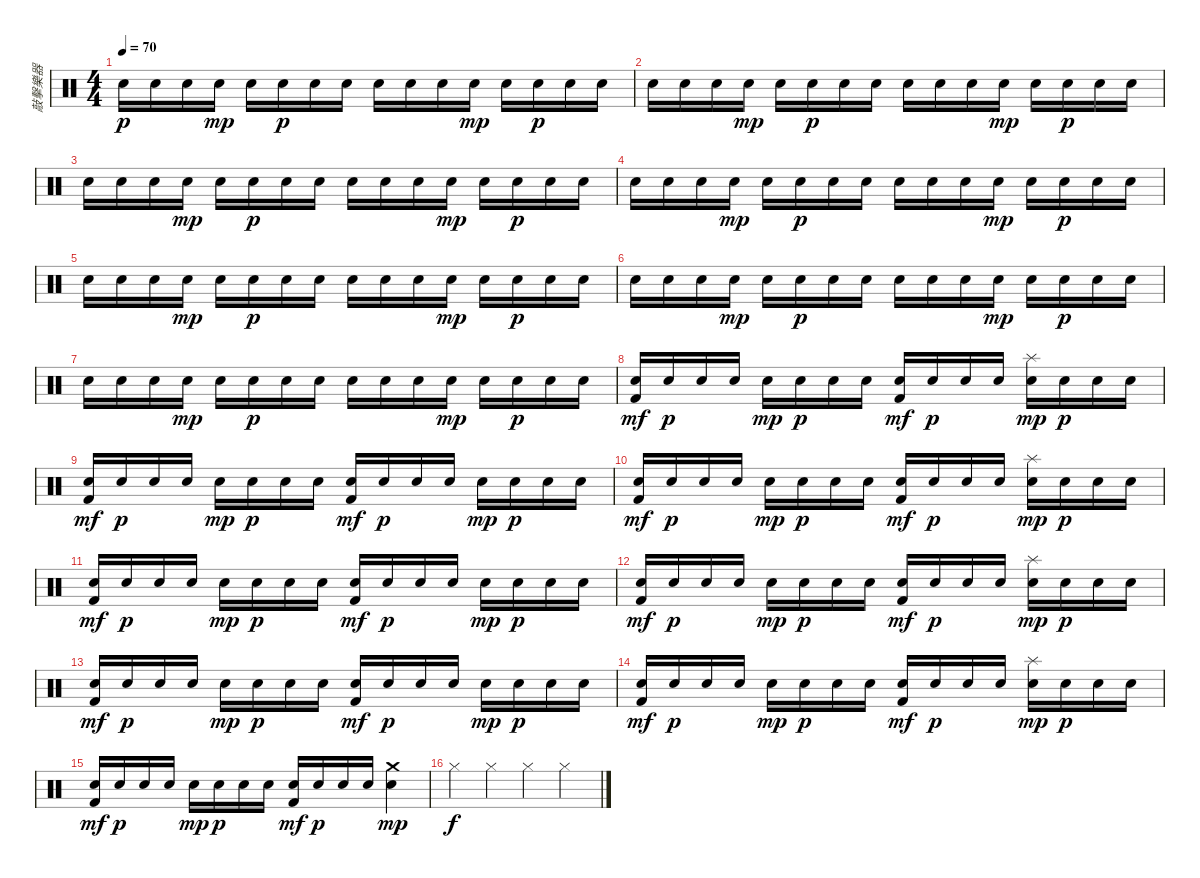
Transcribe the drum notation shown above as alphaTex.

\track ("敲擊樂器" "敲擊樂器") {instrument percussion}
\staff {score}
\articulation defaults
\ts (4 4)
\tempo 70
\clef neutral
\ks c "Snare (hit) 2".16{dy p} "Snare (hit) 2".16 "Snare (hit) 2".16 "Snare (hit) 2".16{dy mp} "Snare (hit) 2".16 "Snare (hit) 2".16{dy p} "Snare (hit) 2".16 "Snare (hit) 2".16 "Snare (hit) 2".16 "Snare (hit) 2".16 "Snare (hit) 2".16 "Snare (hit) 2".16{dy mp} "Snare (hit) 2".16 "Snare (hit) 2".16{dy p} "Snare (hit) 2".16 "Snare (hit) 2".16
|
"Snare (hit) 2".16 "Snare (hit) 2".16 "Snare (hit) 2".16 "Snare (hit) 2".16{dy mp} "Snare (hit) 2".16 "Snare (hit) 2".16{dy p} "Snare (hit) 2".16 "Snare (hit) 2".16 "Snare (hit) 2".16 "Snare (hit) 2".16 "Snare (hit) 2".16 "Snare (hit) 2".16{dy mp} "Snare (hit) 2".16 "Snare (hit) 2".16{dy p} "Snare (hit) 2".16 "Snare (hit) 2".16 |
"Snare (hit) 2".16 "Snare (hit) 2".16 "Snare (hit) 2".16 "Snare (hit) 2".16{dy mp} "Snare (hit) 2".16 "Snare (hit) 2".16{dy p} "Snare (hit) 2".16 "Snare (hit) 2".16 "Snare (hit) 2".16 "Snare (hit) 2".16 "Snare (hit) 2".16 "Snare (hit) 2".16{dy mp} "Snare (hit) 2".16 "Snare (hit) 2".16{dy p} "Snare (hit) 2".16 "Snare (hit) 2".16 |
"Snare (hit) 2".16 "Snare (hit) 2".16 "Snare (hit) 2".16 "Snare (hit) 2".16{dy mp} "Snare (hit) 2".16 "Snare (hit) 2".16{dy p} "Snare (hit) 2".16 "Snare (hit) 2".16 "Snare (hit) 2".16 "Snare (hit) 2".16 "Snare (hit) 2".16 "Snare (hit) 2".16{dy mp} "Snare (hit) 2".16 "Snare (hit) 2".16{dy p} "Snare (hit) 2".16 "Snare (hit) 2".16 |
"Snare (hit) 2".16 "Snare (hit) 2".16 "Snare (hit) 2".16 "Snare (hit) 2".16{dy mp} "Snare (hit) 2".16 "Snare (hit) 2".16{dy p} "Snare (hit) 2".16 "Snare (hit) 2".16 "Snare (hit) 2".16 "Snare (hit) 2".16 "Snare (hit) 2".16 "Snare (hit) 2".16{dy mp} "Snare (hit) 2".16 "Snare (hit) 2".16{dy p} "Snare (hit) 2".16 "Snare (hit) 2".16 |
"Snare (hit) 2".16 "Snare (hit) 2".16 "Snare (hit) 2".16 "Snare (hit) 2".16{dy mp} "Snare (hit) 2".16 "Snare (hit) 2".16{dy p} "Snare (hit) 2".16 "Snare (hit) 2".16 "Snare (hit) 2".16 "Snare (hit) 2".16 "Snare (hit) 2".16 "Snare (hit) 2".16{dy mp} "Snare (hit) 2".16 "Snare (hit) 2".16{dy p} "Snare (hit) 2".16 "Snare (hit) 2".16 |
"Snare (hit) 2".16 "Snare (hit) 2".16 "Snare (hit) 2".16 "Snare (hit) 2".16{dy mp} "Snare (hit) 2".16 "Snare (hit) 2".16{dy p} "Snare (hit) 2".16 "Snare (hit) 2".16 "Snare (hit) 2".16 "Snare (hit) 2".16 "Snare (hit) 2".16 "Snare (hit) 2".16{dy mp} "Snare (hit) 2".16 "Snare (hit) 2".16{dy p} "Snare (hit) 2".16 "Snare (hit) 2".16 |
("Snare (hit) 2" "Kick (hit) 2").16{dy mf} "Snare (hit) 2".16{dy p} "Snare (hit) 2".16 "Snare (hit) 2".16 "Snare (hit) 2".16{dy mp} "Snare (hit) 2".16{dy p} "Snare (hit) 2".16 "Snare (hit) 2".16 ("Snare (hit) 2" "Kick (hit) 2").16{dy mf} "Snare (hit) 2".16{dy p} "Snare (hit) 2".16 "Snare (hit) 2".16 ("Splash (hit)" "Snare (hit) 2").16{dy mp} "Snare (hit) 2".16{dy p} "Snare (hit) 2".16 "Snare (hit) 2".16 |
("Snare (hit) 2" "Kick (hit) 2").16{dy mf} "Snare (hit) 2".16{dy p} "Snare (hit) 2".16 "Snare (hit) 2".16 "Snare (hit) 2".16{dy mp} "Snare (hit) 2".16{dy p} "Snare (hit) 2".16 "Snare (hit) 2".16 ("Snare (hit) 2" "Kick (hit) 2").16{dy mf} "Snare (hit) 2".16{dy p} "Snare (hit) 2".16 "Snare (hit) 2".16 "Snare (hit) 2".16{dy mp} "Snare (hit) 2".16{dy p} "Snare (hit) 2".16 "Snare (hit) 2".16 |
("Snare (hit) 2" "Kick (hit) 2").16{dy mf} "Snare (hit) 2".16{dy p} "Snare (hit) 2".16 "Snare (hit) 2".16 "Snare (hit) 2".16{dy mp} "Snare (hit) 2".16{dy p} "Snare (hit) 2".16 "Snare (hit) 2".16 ("Snare (hit) 2" "Kick (hit) 2").16{dy mf} "Snare (hit) 2".16{dy p} "Snare (hit) 2".16 "Snare (hit) 2".16 ("Splash (hit)" "Snare (hit) 2").16{dy mp} "Snare (hit) 2".16{dy p} "Snare (hit) 2".16 "Snare (hit) 2".16 |
("Snare (hit) 2" "Kick (hit) 2").16{dy mf} "Snare (hit) 2".16{dy p} "Snare (hit) 2".16 "Snare (hit) 2".16 "Snare (hit) 2".16{dy mp} "Snare (hit) 2".16{dy p} "Snare (hit) 2".16 "Snare (hit) 2".16 ("Snare (hit) 2" "Kick (hit) 2").16{dy mf} "Snare (hit) 2".16{dy p} "Snare (hit) 2".16 "Snare (hit) 2".16 "Snare (hit) 2".16{dy mp} "Snare (hit) 2".16{dy p} "Snare (hit) 2".16 "Snare (hit) 2".16 |
("Snare (hit) 2" "Kick (hit) 2").16{dy mf} "Snare (hit) 2".16{dy p} "Snare (hit) 2".16 "Snare (hit) 2".16 "Snare (hit) 2".16{dy mp} "Snare (hit) 2".16{dy p} "Snare (hit) 2".16 "Snare (hit) 2".16 ("Snare (hit) 2" "Kick (hit) 2").16{dy mf} "Snare (hit) 2".16{dy p} "Snare (hit) 2".16 "Snare (hit) 2".16 ("Splash (hit)" "Snare (hit) 2").16{dy mp} "Snare (hit) 2".16{dy p} "Snare (hit) 2".16 "Snare (hit) 2".16 |
("Snare (hit) 2" "Kick (hit) 2").16{dy mf} "Snare (hit) 2".16{dy p} "Snare (hit) 2".16 "Snare (hit) 2".16 "Snare (hit) 2".16{dy mp} "Snare (hit) 2".16{dy p} "Snare (hit) 2".16 "Snare (hit) 2".16 ("Snare (hit) 2" "Kick (hit) 2").16{dy mf} "Snare (hit) 2".16{dy p} "Snare (hit) 2".16 "Snare (hit) 2".16 "Snare (hit) 2".16{dy mp} "Snare (hit) 2".16{dy p} "Snare (hit) 2".16 "Snare (hit) 2".16 |
("Snare (hit) 2" "Kick (hit) 2").16{dy mf} "Snare (hit) 2".16{dy p} "Snare (hit) 2".16 "Snare (hit) 2".16 "Snare (hit) 2".16{dy mp} "Snare (hit) 2".16{dy p} "Snare (hit) 2".16 "Snare (hit) 2".16 ("Snare (hit) 2" "Kick (hit) 2").16{dy mf} "Snare (hit) 2".16{dy p} "Snare (hit) 2".16 "Snare (hit) 2".16 ("Splash (hit)" "Snare (hit) 2").16{dy mp} "Snare (hit) 2".16{dy p} "Snare (hit) 2".16 "Snare (hit) 2".16 |
("Snare (hit) 2" "Kick (hit) 2").16{dy mf} "Snare (hit) 2".16{dy p} "Snare (hit) 2".16 "Snare (hit) 2".16 "Snare (hit) 2".16{dy mp} "Snare (hit) 2".16{dy p} "Snare (hit) 2".16 "Snare (hit) 2".16 ("Snare (hit) 2" "Kick (hit) 2").16{dy mf} "Snare (hit) 2".16{dy p} "Snare (hit) 2".16 "Snare (hit) 2".16 ("Crash medium (hit)" "Snare (hit) 2").4{dy mp} |
"Hi-Hat (closed)".4{dy f} "Hi-Hat (closed)".4 "Hi-Hat (closed)".4 "Hi-Hat (closed)".4
